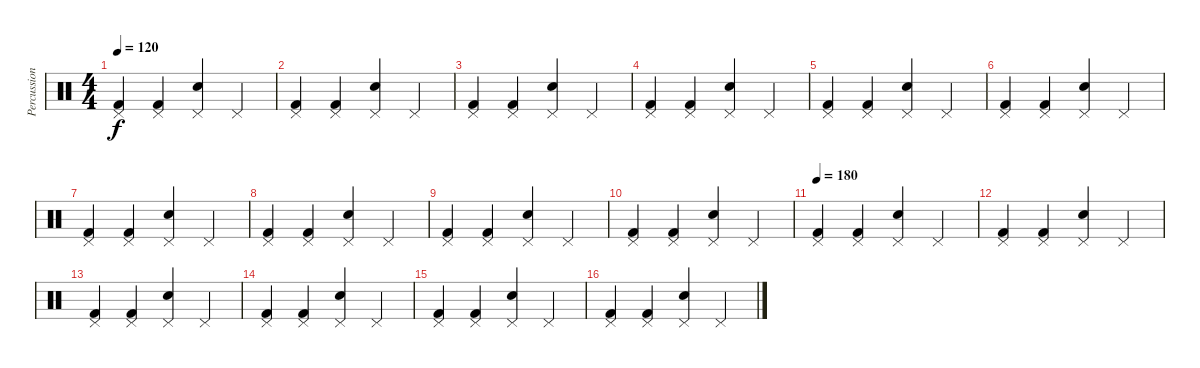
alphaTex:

\track ("Percussion" "Percussion") {instrument percussion}
\staff {score}
\articulation defaults
\ts (4 4)
\tempo 120
\clef neutral
\ks c
("Kick (hit) 2" "Pedal Hi-Hat (hit)").4{dy f} ("Kick (hit) 2" "Pedal Hi-Hat (hit)").4 ("Electric Snare (hit)" "Pedal Hi-Hat (hit)").4 "Pedal Hi-Hat (hit)".4 |
("Kick (hit) 2" "Pedal Hi-Hat (hit)").4 ("Kick (hit) 2" "Pedal Hi-Hat (hit)").4 ("Electric Snare (hit)" "Pedal Hi-Hat (hit)").4 "Pedal Hi-Hat (hit)".4 |
("Kick (hit) 2" "Pedal Hi-Hat (hit)").4 ("Kick (hit) 2" "Pedal Hi-Hat (hit)").4 ("Electric Snare (hit)" "Pedal Hi-Hat (hit)").4 "Pedal Hi-Hat (hit)".4 |
("Kick (hit) 2" "Pedal Hi-Hat (hit)").4 ("Kick (hit) 2" "Pedal Hi-Hat (hit)").4 ("Electric Snare (hit)" "Pedal Hi-Hat (hit)").4 "Pedal Hi-Hat (hit)".4 |
("Kick (hit) 2" "Pedal Hi-Hat (hit)").4 ("Kick (hit) 2" "Pedal Hi-Hat (hit)").4 ("Electric Snare (hit)" "Pedal Hi-Hat (hit)").4 "Pedal Hi-Hat (hit)".4 |
("Kick (hit) 2" "Pedal Hi-Hat (hit)").4 ("Kick (hit) 2" "Pedal Hi-Hat (hit)").4 ("Electric Snare (hit)" "Pedal Hi-Hat (hit)").4 "Pedal Hi-Hat (hit)".4 |
("Kick (hit) 2" "Pedal Hi-Hat (hit)").4 ("Kick (hit) 2" "Pedal Hi-Hat (hit)").4 ("Electric Snare (hit)" "Pedal Hi-Hat (hit)").4 "Pedal Hi-Hat (hit)".4 |
("Kick (hit) 2" "Pedal Hi-Hat (hit)").4 ("Kick (hit) 2" "Pedal Hi-Hat (hit)").4 ("Electric Snare (hit)" "Pedal Hi-Hat (hit)").4 "Pedal Hi-Hat (hit)".4 |
("Kick (hit) 2" "Pedal Hi-Hat (hit)").4 ("Kick (hit) 2" "Pedal Hi-Hat (hit)").4 ("Electric Snare (hit)" "Pedal Hi-Hat (hit)").4 "Pedal Hi-Hat (hit)".4 |
("Kick (hit) 2" "Pedal Hi-Hat (hit)").4 ("Kick (hit) 2" "Pedal Hi-Hat (hit)").4 ("Electric Snare (hit)" "Pedal Hi-Hat (hit)").4 "Pedal Hi-Hat (hit)".4 |
\tempo 180
("Kick (hit) 2" "Pedal Hi-Hat (hit)").4 ("Kick (hit) 2" "Pedal Hi-Hat (hit)").4 ("Electric Snare (hit)" "Pedal Hi-Hat (hit)").4 "Pedal Hi-Hat (hit)".4 |
("Kick (hit) 2" "Pedal Hi-Hat (hit)").4 ("Kick (hit) 2" "Pedal Hi-Hat (hit)").4 ("Electric Snare (hit)" "Pedal Hi-Hat (hit)").4 "Pedal Hi-Hat (hit)".4 |
("Kick (hit) 2" "Pedal Hi-Hat (hit)").4 ("Kick (hit) 2" "Pedal Hi-Hat (hit)").4 ("Electric Snare (hit)" "Pedal Hi-Hat (hit)").4 "Pedal Hi-Hat (hit)".4 |
("Kick (hit) 2" "Pedal Hi-Hat (hit)").4 ("Kick (hit) 2" "Pedal Hi-Hat (hit)").4 ("Electric Snare (hit)" "Pedal Hi-Hat (hit)").4 "Pedal Hi-Hat (hit)".4 |
("Kick (hit) 2" "Pedal Hi-Hat (hit)").4 ("Kick (hit) 2" "Pedal Hi-Hat (hit)").4 ("Electric Snare (hit)" "Pedal Hi-Hat (hit)").4 "Pedal Hi-Hat (hit)".4 |
("Kick (hit) 2" "Pedal Hi-Hat (hit)").4 ("Kick (hit) 2" "Pedal Hi-Hat (hit)").4 ("Electric Snare (hit)" "Pedal Hi-Hat (hit)").4 "Pedal Hi-Hat (hit)".4
